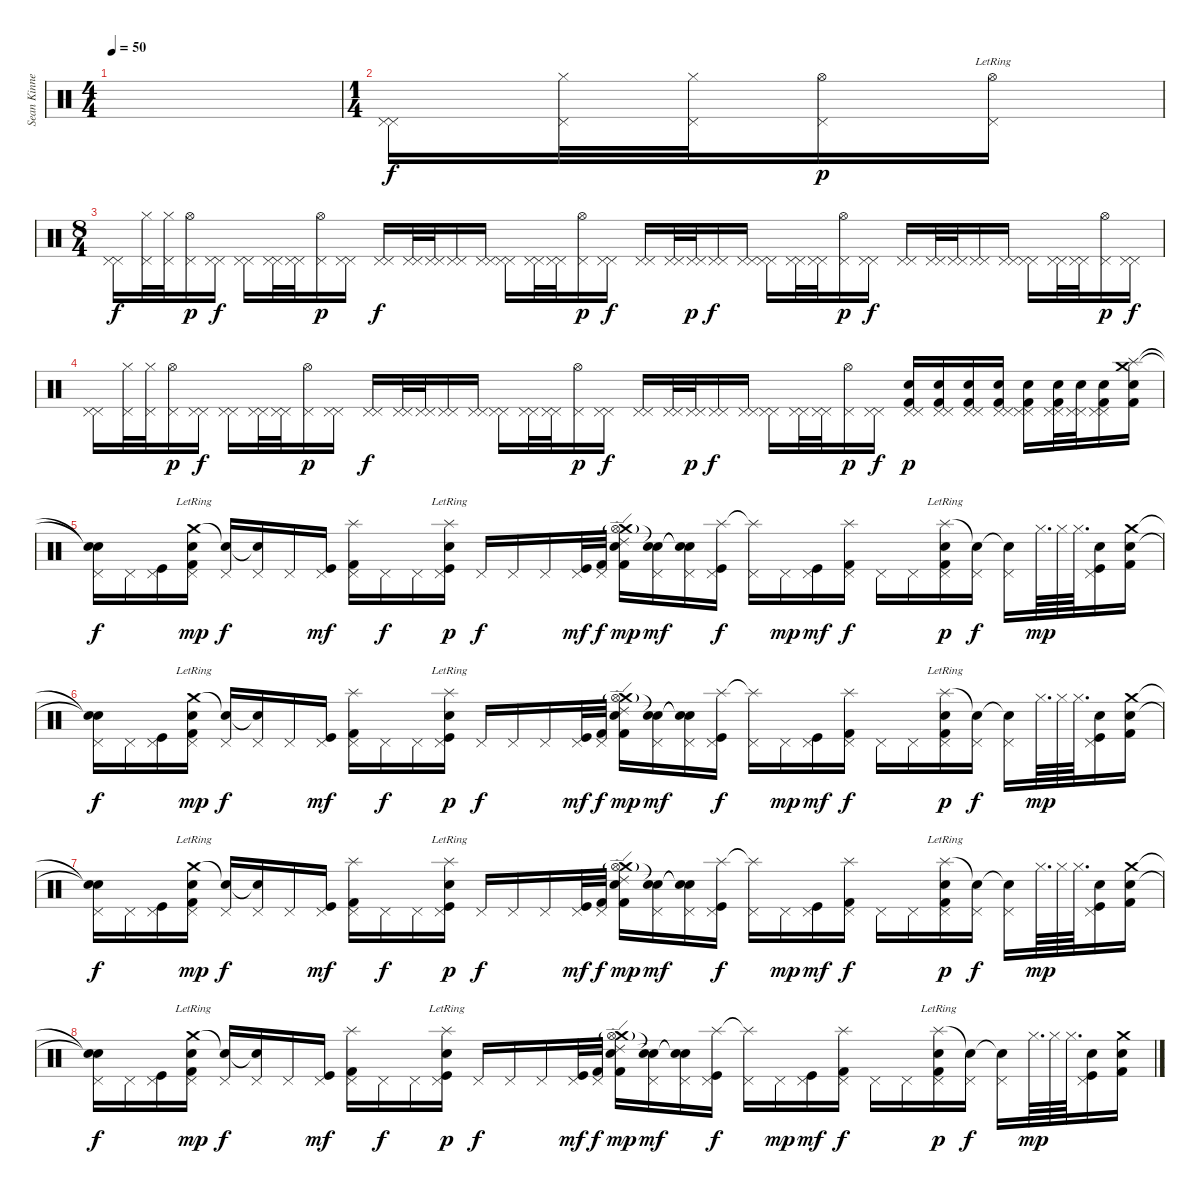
\track ("Sean Kinney" "Sean Kinne") {instrument percussion}
\staff {score}
\articulation defaults
\ts (4 4)
\tempo 50
\clef neutral
\ks c
|
\ts (1 4)
("Pedal Hi-Hat (hit)" "Pedal Hi-Hat (hit)").16 ("Hi-Hat (closed)" "Pedal Hi-Hat (hit)").32 ("Hi-Hat (closed)" "Pedal Hi-Hat (hit)").32 ("Pedal Hi-Hat (hit)" "Hi-Hat (open)").16{dy p} ("Pedal Hi-Hat (hit)" "Hi-Hat (open)"{lr}).16 |
\ts (8 4)
("Pedal Hi-Hat (hit)" "Pedal Hi-Hat (hit)").16{dy f} ("Hi-Hat (closed)" "Pedal Hi-Hat (hit)").32 ("Hi-Hat (closed)" "Pedal Hi-Hat (hit)").32 ("Pedal Hi-Hat (hit)" "Hi-Hat (open)").16{dy p} ("Pedal Hi-Hat (hit)" "Pedal Hi-Hat (hit)").16{dy f} ("Pedal Hi-Hat (hit)" "Pedal Hi-Hat (hit)").16 ("Pedal Hi-Hat (hit)" "Pedal Hi-Hat (hit)").32 ("Pedal Hi-Hat (hit)" "Pedal Hi-Hat (hit)").32 ("Pedal Hi-Hat (hit)" "Hi-Hat (open)").16{dy p} ("Pedal Hi-Hat (hit)" "Pedal Hi-Hat (hit)").16 ("Pedal Hi-Hat (hit)" "Pedal Hi-Hat (hit)").16{dy f} ("Pedal Hi-Hat (hit)" "Pedal Hi-Hat (hit)").32 ("Pedal Hi-Hat (hit)" "Pedal Hi-Hat (hit)").32 ("Pedal Hi-Hat (hit)" "Pedal Hi-Hat (hit)").16 ("Pedal Hi-Hat (hit)" "Pedal Hi-Hat (hit)").16 ("Pedal Hi-Hat (hit)" "Pedal Hi-Hat (hit)").16 ("Pedal Hi-Hat (hit)" "Pedal Hi-Hat (hit)").32 ("Pedal Hi-Hat (hit)" "Pedal Hi-Hat (hit)").32 ("Pedal Hi-Hat (hit)" "Hi-Hat (open)").16{dy p} ("Pedal Hi-Hat (hit)" "Pedal Hi-Hat (hit)").16{dy f} ("Pedal Hi-Hat (hit)" "Pedal Hi-Hat (hit)").16 ("Pedal Hi-Hat (hit)" "Pedal Hi-Hat (hit)").32 ("Pedal Hi-Hat (hit)" "Pedal Hi-Hat (hit)").32{dy p} ("Pedal Hi-Hat (hit)" "Pedal Hi-Hat (hit)").16{dy f} ("Pedal Hi-Hat (hit)" "Pedal Hi-Hat (hit)").16 ("Pedal Hi-Hat (hit)" "Pedal Hi-Hat (hit)").16 ("Pedal Hi-Hat (hit)" "Pedal Hi-Hat (hit)").32 ("Pedal Hi-Hat (hit)" "Pedal Hi-Hat (hit)").32 ("Pedal Hi-Hat (hit)" "Hi-Hat (open)").16{dy p} ("Pedal Hi-Hat (hit)" "Pedal Hi-Hat (hit)").16{dy f} ("Pedal Hi-Hat (hit)" "Pedal Hi-Hat (hit)").16 ("Pedal Hi-Hat (hit)" "Pedal Hi-Hat (hit)").32 ("Pedal Hi-Hat (hit)" "Pedal Hi-Hat (hit)").32 ("Pedal Hi-Hat (hit)" "Pedal Hi-Hat (hit)").16 ("Pedal Hi-Hat (hit)" "Pedal Hi-Hat (hit)").16 ("Pedal Hi-Hat (hit)" "Pedal Hi-Hat (hit)").16 ("Pedal Hi-Hat (hit)" "Pedal Hi-Hat (hit)").32 ("Pedal Hi-Hat (hit)" "Pedal Hi-Hat (hit)").32 ("Pedal Hi-Hat (hit)" "Hi-Hat (open)").16{dy p} ("Pedal Hi-Hat (hit)" "Pedal Hi-Hat (hit)").16{dy f} |
("Pedal Hi-Hat (hit)" "Pedal Hi-Hat (hit)").16 ("Hi-Hat (closed)" "Pedal Hi-Hat (hit)").32 ("Hi-Hat (closed)" "Pedal Hi-Hat (hit)").32 ("Pedal Hi-Hat (hit)" "Hi-Hat (open)").16{dy p} ("Pedal Hi-Hat (hit)" "Pedal Hi-Hat (hit)").16{dy f} ("Pedal Hi-Hat (hit)" "Pedal Hi-Hat (hit)").16 ("Pedal Hi-Hat (hit)" "Pedal Hi-Hat (hit)").32 ("Pedal Hi-Hat (hit)" "Pedal Hi-Hat (hit)").32 ("Pedal Hi-Hat (hit)" "Hi-Hat (open)").16{dy p} ("Pedal Hi-Hat (hit)" "Pedal Hi-Hat (hit)").16 ("Pedal Hi-Hat (hit)" "Pedal Hi-Hat (hit)").16{dy f} ("Pedal Hi-Hat (hit)" "Pedal Hi-Hat (hit)").32 ("Pedal Hi-Hat (hit)" "Pedal Hi-Hat (hit)").32 ("Pedal Hi-Hat (hit)" "Pedal Hi-Hat (hit)").16 ("Pedal Hi-Hat (hit)" "Pedal Hi-Hat (hit)").16 ("Pedal Hi-Hat (hit)" "Pedal Hi-Hat (hit)").16 ("Pedal Hi-Hat (hit)" "Pedal Hi-Hat (hit)").32 ("Pedal Hi-Hat (hit)" "Pedal Hi-Hat (hit)").32 ("Pedal Hi-Hat (hit)" "Hi-Hat (open)").16{dy p} ("Pedal Hi-Hat (hit)" "Pedal Hi-Hat (hit)").16{dy f} ("Pedal Hi-Hat (hit)" "Pedal Hi-Hat (hit)").16 ("Pedal Hi-Hat (hit)" "Pedal Hi-Hat (hit)").32 ("Pedal Hi-Hat (hit)" "Pedal Hi-Hat (hit)").32{dy p} ("Pedal Hi-Hat (hit)" "Pedal Hi-Hat (hit)").16{dy f} ("Pedal Hi-Hat (hit)" "Pedal Hi-Hat (hit)").16 ("Pedal Hi-Hat (hit)" "Pedal Hi-Hat (hit)").16 ("Pedal Hi-Hat (hit)" "Pedal Hi-Hat (hit)").32 ("Pedal Hi-Hat (hit)" "Pedal Hi-Hat (hit)").32 ("Pedal Hi-Hat (hit)" "Hi-Hat (open)").16{dy p} ("Pedal Hi-Hat (hit)" "Pedal Hi-Hat (hit)").16{dy f} ("Pedal Hi-Hat (hit)" "Pedal Hi-Hat (hit)" "Snare (hit) 2" "Kick (hit) 2").16{dy p} ("Pedal Hi-Hat (hit)" "Pedal Hi-Hat (hit)" "Snare (hit) 2" "Kick (hit) 2").16 ("Pedal Hi-Hat (hit)" "Pedal Hi-Hat (hit)" "Snare (hit) 2" "Kick (hit) 2").16 ("Pedal Hi-Hat (hit)" "Pedal Hi-Hat (hit)" "Snare (hit) 2" "Kick (hit) 2").16 ("Pedal Hi-Hat (hit)" "Pedal Hi-Hat (hit)" "Snare (hit) 2" "Kick (hit) 2").16 ("Pedal Hi-Hat (hit)" "Pedal Hi-Hat (hit)" "Snare (hit) 2" "Kick (hit) 2").32 ("Pedal Hi-Hat (hit)" "Pedal Hi-Hat (hit)" "Snare (hit) 2").32 ("Pedal Hi-Hat (hit)" "Pedal Hi-Hat (hit)" "Snare (hit) 2" "Kick (hit) 2").16 ("Splash (hit)" "Crash medium (hit)" "Snare (hit) 2" "Kick (hit) 2").16 |
("Snare (hit)"{t} "Snare (hit)"{t} "Pedal Hi-Hat (hit)").16{dy f} "Pedal Hi-Hat (hit)".16 ("Pedal Hi-Hat (hit)" "Kick (hit)").16 ("Crash medium (hit)"{lr} "Snare (hit) 2" "Pedal Hi-Hat (hit)" "Kick (hit) 2").16{dy mp} ("Snare (hit)"{t} "Pedal Hi-Hat (hit)").16{dy f} ("Snare (hit)"{t} "Pedal Hi-Hat (hit)").16 "Pedal Hi-Hat (hit)".16 ("Pedal Hi-Hat (hit)" "Kick (hit)").16{dy mf} ("Splash (hit)" "Pedal Hi-Hat (hit)" "Kick (hit) 2").16 "Pedal Hi-Hat (hit)".16{dy f} "Pedal Hi-Hat (hit)".16 ("Splash (hit)"{lr} "Snare (hit) 2" "Pedal Hi-Hat (hit)" "Kick (hit)").16{dy p} "Pedal Hi-Hat (hit)".16{dy f} "Pedal Hi-Hat (hit)".16 "Pedal Hi-Hat (hit)".16 ("Pedal Hi-Hat (hit)" "Kick (hit)").32{dy mf} ("Pedal Hi-Hat (hit)" "Kick (hit) 2").32{dy f} ("Crash medium (hit)" "Ride (edge) 2" "Snare (hit) 2" "Hi-Hat (open)"{g} "Kick (hit) 2").16{dy mp} ("Snare (hit)"{t} "Snare (hit)"{t} "Pedal Hi-Hat (hit)").16{dy mf} ("Snare (hit)"{t} "Snare (hit)"{t} "Pedal Hi-Hat (hit)").16 ("Splash (hit)" "Pedal Hi-Hat (hit)" "Kick (hit)").16{dy f} ("Splash (hit)"{t} "Pedal Hi-Hat (hit)").16 "Pedal Hi-Hat (hit)".16{dy mp} ("Pedal Hi-Hat (hit)" "Kick (hit)").16{dy mf} ("Splash (hit)" "Pedal Hi-Hat (hit)" "Kick (hit) 2").16{dy f} "Pedal Hi-Hat (hit)".16 "Pedal Hi-Hat (hit)".16 ("Splash (hit)"{lr} "Snare (hit) 2" "Pedal Hi-Hat (hit)" "Kick (hit) 2").16{dy p} ("Snare (hit)"{t} "Pedal Hi-Hat (hit)").16{dy f} ("Snare (hit)"{t} "Pedal Hi-Hat (hit)").16 "Hi-Hat (closed)".64{d dy mp} "Hi-Hat (closed)".64 "Hi-Hat (closed)".64{d} ("Snare (hit) 2" "Pedal Hi-Hat (hit)" "Kick (hit)").16 ("Crash medium (hit)" "Snare (hit) 2" "Kick (hit) 2").16 |
("Snare (hit)"{t} "Snare (hit)"{t} "Pedal Hi-Hat (hit)").16{dy f} "Pedal Hi-Hat (hit)".16 ("Pedal Hi-Hat (hit)" "Kick (hit)").16 ("Crash medium (hit)"{lr} "Snare (hit) 2" "Pedal Hi-Hat (hit)" "Kick (hit) 2").16{dy mp} ("Snare (hit)"{t} "Pedal Hi-Hat (hit)").16{dy f} ("Snare (hit)"{t} "Pedal Hi-Hat (hit)").16 "Pedal Hi-Hat (hit)".16 ("Pedal Hi-Hat (hit)" "Kick (hit)").16{dy mf} ("Splash (hit)" "Pedal Hi-Hat (hit)" "Kick (hit) 2").16 "Pedal Hi-Hat (hit)".16{dy f} "Pedal Hi-Hat (hit)".16 ("Splash (hit)"{lr} "Snare (hit) 2" "Pedal Hi-Hat (hit)" "Kick (hit)").16{dy p} "Pedal Hi-Hat (hit)".16{dy f} "Pedal Hi-Hat (hit)".16 "Pedal Hi-Hat (hit)".16 ("Pedal Hi-Hat (hit)" "Kick (hit)").32{dy mf} ("Pedal Hi-Hat (hit)" "Kick (hit) 2").32{dy f} ("Crash medium (hit)" "Ride (edge) 2" "Snare (hit) 2" "Hi-Hat (open)"{g} "Kick (hit) 2").16{dy mp} ("Snare (hit)"{t} "Snare (hit)"{t} "Pedal Hi-Hat (hit)").16{dy mf} ("Snare (hit)"{t} "Snare (hit)"{t} "Pedal Hi-Hat (hit)").16 ("Splash (hit)" "Pedal Hi-Hat (hit)" "Kick (hit)").16{dy f} ("Splash (hit)"{t} "Pedal Hi-Hat (hit)").16 "Pedal Hi-Hat (hit)".16{dy mp} ("Pedal Hi-Hat (hit)" "Kick (hit)").16{dy mf} ("Splash (hit)" "Pedal Hi-Hat (hit)" "Kick (hit) 2").16{dy f} "Pedal Hi-Hat (hit)".16 "Pedal Hi-Hat (hit)".16 ("Splash (hit)"{lr} "Snare (hit) 2" "Pedal Hi-Hat (hit)" "Kick (hit) 2").16{dy p} ("Snare (hit)"{t} "Pedal Hi-Hat (hit)").16{dy f} ("Snare (hit)"{t} "Pedal Hi-Hat (hit)").16 "Hi-Hat (closed)".64{d dy mp} "Hi-Hat (closed)".64 "Hi-Hat (closed)".64{d} ("Snare (hit) 2" "Pedal Hi-Hat (hit)" "Kick (hit)").16 ("Crash medium (hit)" "Snare (hit) 2" "Kick (hit) 2").16 |
("Snare (hit)"{t} "Snare (hit)"{t} "Pedal Hi-Hat (hit)").16{dy f} "Pedal Hi-Hat (hit)".16 ("Pedal Hi-Hat (hit)" "Kick (hit)").16 ("Crash medium (hit)"{lr} "Snare (hit) 2" "Pedal Hi-Hat (hit)" "Kick (hit) 2").16{dy mp} ("Snare (hit)"{t} "Pedal Hi-Hat (hit)").16{dy f} ("Snare (hit)"{t} "Pedal Hi-Hat (hit)").16 "Pedal Hi-Hat (hit)".16 ("Pedal Hi-Hat (hit)" "Kick (hit)").16{dy mf} ("Splash (hit)" "Pedal Hi-Hat (hit)" "Kick (hit) 2").16 "Pedal Hi-Hat (hit)".16{dy f} "Pedal Hi-Hat (hit)".16 ("Splash (hit)"{lr} "Snare (hit) 2" "Pedal Hi-Hat (hit)" "Kick (hit)").16{dy p} "Pedal Hi-Hat (hit)".16{dy f} "Pedal Hi-Hat (hit)".16 "Pedal Hi-Hat (hit)".16 ("Pedal Hi-Hat (hit)" "Kick (hit)").32{dy mf} ("Pedal Hi-Hat (hit)" "Kick (hit) 2").32{dy f} ("Crash medium (hit)" "Ride (edge) 2" "Snare (hit) 2" "Hi-Hat (open)"{g} "Kick (hit) 2").16{dy mp} ("Snare (hit)"{t} "Snare (hit)"{t} "Pedal Hi-Hat (hit)").16{dy mf} ("Snare (hit)"{t} "Snare (hit)"{t} "Pedal Hi-Hat (hit)").16 ("Splash (hit)" "Pedal Hi-Hat (hit)" "Kick (hit)").16{dy f} ("Splash (hit)"{t} "Pedal Hi-Hat (hit)").16 "Pedal Hi-Hat (hit)".16{dy mp} ("Pedal Hi-Hat (hit)" "Kick (hit)").16{dy mf} ("Splash (hit)" "Pedal Hi-Hat (hit)" "Kick (hit) 2").16{dy f} "Pedal Hi-Hat (hit)".16 "Pedal Hi-Hat (hit)".16 ("Splash (hit)"{lr} "Snare (hit) 2" "Pedal Hi-Hat (hit)" "Kick (hit) 2").16{dy p} ("Snare (hit)"{t} "Pedal Hi-Hat (hit)").16{dy f} ("Snare (hit)"{t} "Pedal Hi-Hat (hit)").16 "Hi-Hat (closed)".64{d dy mp} "Hi-Hat (closed)".64 "Hi-Hat (closed)".64{d} ("Snare (hit) 2" "Pedal Hi-Hat (hit)" "Kick (hit)").16 ("Crash medium (hit)" "Snare (hit) 2" "Kick (hit) 2").16 |
("Snare (hit)"{t} "Snare (hit)"{t} "Pedal Hi-Hat (hit)").16{dy f} "Pedal Hi-Hat (hit)".16 ("Pedal Hi-Hat (hit)" "Kick (hit)").16 ("Crash medium (hit)"{lr} "Snare (hit) 2" "Pedal Hi-Hat (hit)" "Kick (hit) 2").16{dy mp} ("Snare (hit)"{t} "Pedal Hi-Hat (hit)").16{dy f} ("Snare (hit)"{t} "Pedal Hi-Hat (hit)").16 "Pedal Hi-Hat (hit)".16 ("Pedal Hi-Hat (hit)" "Kick (hit)").16{dy mf} ("Splash (hit)" "Pedal Hi-Hat (hit)" "Kick (hit) 2").16 "Pedal Hi-Hat (hit)".16{dy f} "Pedal Hi-Hat (hit)".16 ("Splash (hit)"{lr} "Snare (hit) 2" "Pedal Hi-Hat (hit)" "Kick (hit)").16{dy p} "Pedal Hi-Hat (hit)".16{dy f} "Pedal Hi-Hat (hit)".16 "Pedal Hi-Hat (hit)".16 ("Pedal Hi-Hat (hit)" "Kick (hit)").32{dy mf} ("Pedal Hi-Hat (hit)" "Kick (hit) 2").32{dy f} ("Crash medium (hit)" "Ride (edge) 2" "Snare (hit) 2" "Hi-Hat (open)"{g} "Kick (hit) 2").16{dy mp} ("Snare (hit)"{t} "Snare (hit)"{t} "Pedal Hi-Hat (hit)").16{dy mf} ("Snare (hit)"{t} "Snare (hit)"{t} "Pedal Hi-Hat (hit)").16 ("Splash (hit)" "Pedal Hi-Hat (hit)" "Kick (hit)").16{dy f} ("Splash (hit)"{t} "Pedal Hi-Hat (hit)").16 "Pedal Hi-Hat (hit)".16{dy mp} ("Pedal Hi-Hat (hit)" "Kick (hit)").16{dy mf} ("Splash (hit)" "Pedal Hi-Hat (hit)" "Kick (hit) 2").16{dy f} "Pedal Hi-Hat (hit)".16 "Pedal Hi-Hat (hit)".16 ("Splash (hit)"{lr} "Snare (hit) 2" "Pedal Hi-Hat (hit)" "Kick (hit) 2").16{dy p} ("Snare (hit)"{t} "Pedal Hi-Hat (hit)").16{dy f} ("Snare (hit)"{t} "Pedal Hi-Hat (hit)").16 "Hi-Hat (closed)".64{d dy mp} "Hi-Hat (closed)".64 "Hi-Hat (closed)".64{d} ("Snare (hit) 2" "Pedal Hi-Hat (hit)" "Kick (hit)").16 ("Crash medium (hit)" "Snare (hit) 2" "Kick (hit) 2").16
